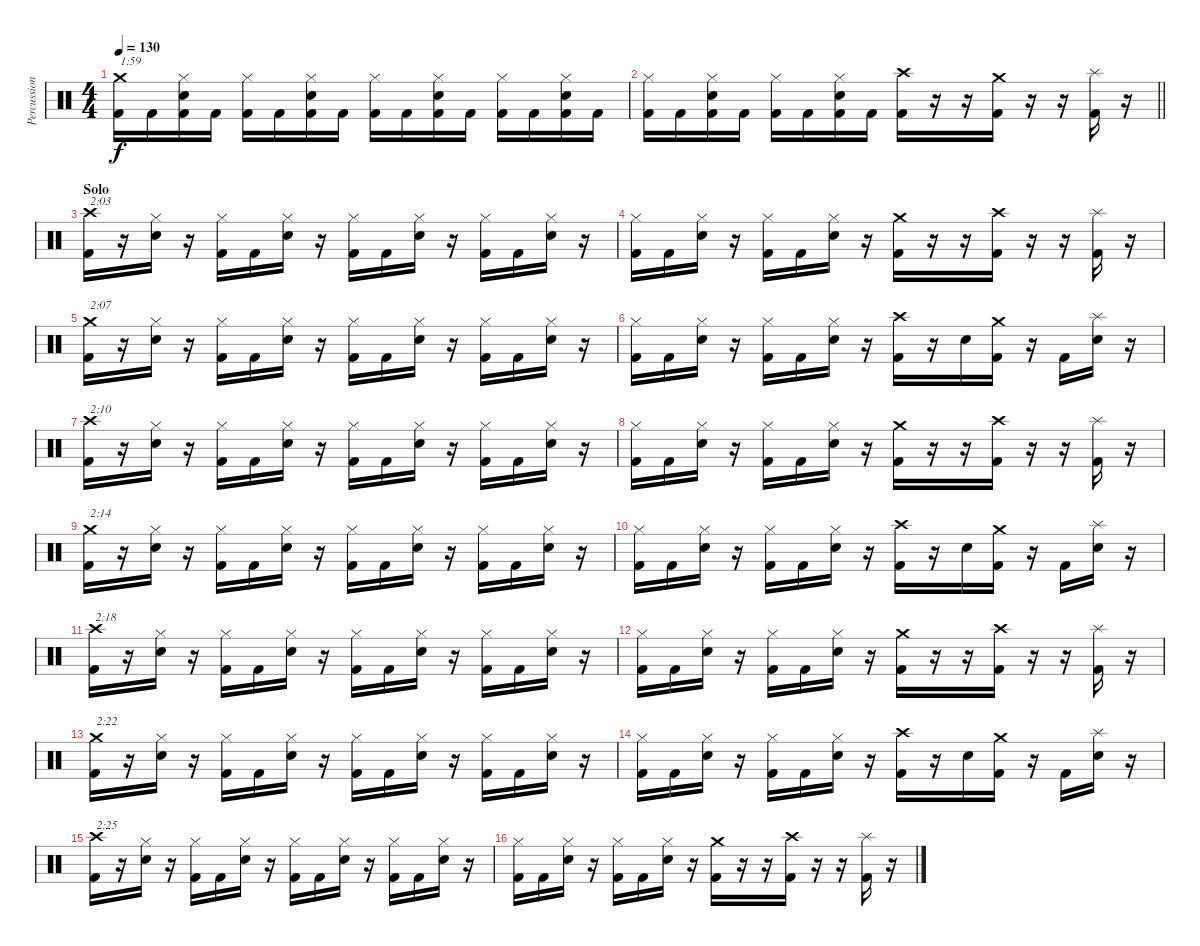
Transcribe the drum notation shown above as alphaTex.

\track ("Percussion" "Percussion") {instrument percussion}
\staff {score}
\articulation defaults
\ts (4 4)
\tempo 130
\clef neutral
\ks c
("Crash medium (hit)" "Kick (hit) 2").16{txt "1:59" dy f} "Kick (hit) 2".16 ("Hi-Hat (closed)" "Electric Snare (hit)" "Kick (hit) 2").16 "Kick (hit) 2".16 ("Hi-Hat (closed)" "Kick (hit) 2").16 "Kick (hit) 2".16 ("Hi-Hat (closed)" "Electric Snare (hit)" "Kick (hit) 2").16 "Kick (hit) 2".16 ("Hi-Hat (closed)" "Kick (hit) 2").16 "Kick (hit) 2".16 ("Hi-Hat (closed)" "Electric Snare (hit)" "Kick (hit) 2").16 "Kick (hit) 2".16 ("Hi-Hat (closed)" "Kick (hit) 2").16 "Kick (hit) 2".16 ("Hi-Hat (closed)" "Electric Snare (hit)" "Kick (hit) 2").16 "Kick (hit) 2".16 |
\barLineRight lightlight
("Hi-Hat (closed)" "Kick (hit) 2").16 "Kick (hit) 2".16 ("Hi-Hat (closed)" "Electric Snare (hit)" "Kick (hit) 2").16 "Kick (hit) 2".16 ("Hi-Hat (closed)" "Kick (hit) 2").16 "Kick (hit) 2".16 ("Hi-Hat (closed)" "Electric Snare (hit)" "Kick (hit) 2").16 "Kick (hit) 2".16 ("Crash high (hit)" "Kick (hit) 2").16 r.16 r.16 ("Crash medium (hit)" "Kick (hit) 2").16 r.16 r.16 ("Splash (hit)" "Kick (hit) 2").16 r.16 |
\section ("" "Solo")
("Crash high (hit)" "Kick (hit) 2").16{txt "2:03"} r.16 ("Hi-Hat (closed)" "Electric Snare (hit)").16 r.16 ("Hi-Hat (closed)" "Kick (hit) 2").16 "Kick (hit) 2".16 ("Hi-Hat (closed)" "Electric Snare (hit)").16 r.16 ("Hi-Hat (closed)" "Kick (hit) 2").16 "Kick (hit) 2".16 ("Hi-Hat (closed)" "Electric Snare (hit)").16 r.16 ("Hi-Hat (closed)" "Kick (hit) 2").16 "Kick (hit) 2".16 ("Hi-Hat (closed)" "Electric Snare (hit)").16 r.16 |
("Hi-Hat (closed)" "Kick (hit) 2").16 "Kick (hit) 2".16 ("Hi-Hat (closed)" "Electric Snare (hit)").16 r.16 ("Hi-Hat (closed)" "Kick (hit) 2").16 "Kick (hit) 2".16 ("Hi-Hat (closed)" "Electric Snare (hit)").16 r.16 ("Crash medium (hit)" "Kick (hit) 2").16 r.16 r.16 ("Crash high (hit)" "Kick (hit) 2").16 r.16 r.16 ("Splash (hit)" "Kick (hit) 2").16 r.16 |
("Crash medium (hit)" "Kick (hit) 2").16{txt "2:07"} r.16 ("Hi-Hat (closed)" "Electric Snare (hit)").16 r.16 ("Hi-Hat (closed)" "Kick (hit) 2").16 "Kick (hit) 2".16 ("Hi-Hat (closed)" "Electric Snare (hit)").16 r.16 ("Hi-Hat (closed)" "Kick (hit) 2").16 "Kick (hit) 2".16 ("Hi-Hat (closed)" "Electric Snare (hit)").16 r.16 ("Hi-Hat (closed)" "Kick (hit) 2").16 "Kick (hit) 2".16 ("Hi-Hat (closed)" "Electric Snare (hit)").16 r.16 |
("Hi-Hat (closed)" "Kick (hit) 2").16 "Kick (hit) 2".16 ("Hi-Hat (closed)" "Electric Snare (hit)").16 r.16 ("Hi-Hat (closed)" "Kick (hit) 2").16 "Kick (hit) 2".16 ("Hi-Hat (closed)" "Electric Snare (hit)").16 r.16 ("Crash high (hit)" "Kick (hit) 2").16 r.16 "Electric Snare (hit)".16 ("Crash medium (hit)" "Kick (hit) 2").16 r.16 "Kick (hit) 2".16 ("Splash (hit)" "Electric Snare (hit)").16 r.16 |
("Crash high (hit)" "Kick (hit) 2").16{txt "2:10"} r.16 ("Hi-Hat (closed)" "Electric Snare (hit)").16 r.16 ("Hi-Hat (closed)" "Kick (hit) 2").16 "Kick (hit) 2".16 ("Hi-Hat (closed)" "Electric Snare (hit)").16 r.16 ("Hi-Hat (closed)" "Kick (hit) 2").16 "Kick (hit) 2".16 ("Hi-Hat (closed)" "Electric Snare (hit)").16 r.16 ("Hi-Hat (closed)" "Kick (hit) 2").16 "Kick (hit) 2".16 ("Hi-Hat (closed)" "Electric Snare (hit)").16 r.16 |
("Hi-Hat (closed)" "Kick (hit) 2").16 "Kick (hit) 2".16 ("Hi-Hat (closed)" "Electric Snare (hit)").16 r.16 ("Hi-Hat (closed)" "Kick (hit) 2").16 "Kick (hit) 2".16 ("Hi-Hat (closed)" "Electric Snare (hit)").16 r.16 ("Crash medium (hit)" "Kick (hit) 2").16 r.16 r.16 ("Crash high (hit)" "Kick (hit) 2").16 r.16 r.16 ("Splash (hit)" "Kick (hit) 2").16 r.16 |
("Crash medium (hit)" "Kick (hit) 2").16{txt "2:14"} r.16 ("Hi-Hat (closed)" "Electric Snare (hit)").16 r.16 ("Hi-Hat (closed)" "Kick (hit) 2").16 "Kick (hit) 2".16 ("Hi-Hat (closed)" "Electric Snare (hit)").16 r.16 ("Hi-Hat (closed)" "Kick (hit) 2").16 "Kick (hit) 2".16 ("Hi-Hat (closed)" "Electric Snare (hit)").16 r.16 ("Hi-Hat (closed)" "Kick (hit) 2").16 "Kick (hit) 2".16 ("Hi-Hat (closed)" "Electric Snare (hit)").16 r.16 |
("Hi-Hat (closed)" "Kick (hit) 2").16 "Kick (hit) 2".16 ("Hi-Hat (closed)" "Electric Snare (hit)").16 r.16 ("Hi-Hat (closed)" "Kick (hit) 2").16 "Kick (hit) 2".16 ("Hi-Hat (closed)" "Electric Snare (hit)").16 r.16 ("Crash high (hit)" "Kick (hit) 2").16 r.16 "Electric Snare (hit)".16 ("Crash medium (hit)" "Kick (hit) 2").16 r.16 "Kick (hit) 2".16 ("Splash (hit)" "Electric Snare (hit)").16 r.16 |
("Crash high (hit)" "Kick (hit) 2").16{txt "2:18"} r.16 ("Hi-Hat (closed)" "Electric Snare (hit)").16 r.16 ("Hi-Hat (closed)" "Kick (hit) 2").16 "Kick (hit) 2".16 ("Hi-Hat (closed)" "Electric Snare (hit)").16 r.16 ("Hi-Hat (closed)" "Kick (hit) 2").16 "Kick (hit) 2".16 ("Hi-Hat (closed)" "Electric Snare (hit)").16 r.16 ("Hi-Hat (closed)" "Kick (hit) 2").16 "Kick (hit) 2".16 ("Hi-Hat (closed)" "Electric Snare (hit)").16 r.16 |
("Hi-Hat (closed)" "Kick (hit) 2").16 "Kick (hit) 2".16 ("Hi-Hat (closed)" "Electric Snare (hit)").16 r.16 ("Hi-Hat (closed)" "Kick (hit) 2").16 "Kick (hit) 2".16 ("Hi-Hat (closed)" "Electric Snare (hit)").16 r.16 ("Crash medium (hit)" "Kick (hit) 2").16 r.16 r.16 ("Crash high (hit)" "Kick (hit) 2").16 r.16 r.16 ("Splash (hit)" "Kick (hit) 2").16 r.16 |
("Crash medium (hit)" "Kick (hit) 2").16{txt "2:22"} r.16 ("Hi-Hat (closed)" "Electric Snare (hit)").16 r.16 ("Hi-Hat (closed)" "Kick (hit) 2").16 "Kick (hit) 2".16 ("Hi-Hat (closed)" "Electric Snare (hit)").16 r.16 ("Hi-Hat (closed)" "Kick (hit) 2").16 "Kick (hit) 2".16 ("Hi-Hat (closed)" "Electric Snare (hit)").16 r.16 ("Hi-Hat (closed)" "Kick (hit) 2").16 "Kick (hit) 2".16 ("Hi-Hat (closed)" "Electric Snare (hit)").16 r.16 |
("Hi-Hat (closed)" "Kick (hit) 2").16 "Kick (hit) 2".16 ("Hi-Hat (closed)" "Electric Snare (hit)").16 r.16 ("Hi-Hat (closed)" "Kick (hit) 2").16 "Kick (hit) 2".16 ("Hi-Hat (closed)" "Electric Snare (hit)").16 r.16 ("Crash high (hit)" "Kick (hit) 2").16 r.16 "Electric Snare (hit)".16 ("Crash medium (hit)" "Kick (hit) 2").16 r.16 "Kick (hit) 2".16 ("Splash (hit)" "Electric Snare (hit)").16 r.16 |
("Crash high (hit)" "Kick (hit) 2").16{txt "2:25"} r.16 ("Hi-Hat (closed)" "Electric Snare (hit)").16 r.16 ("Hi-Hat (closed)" "Kick (hit) 2").16 "Kick (hit) 2".16 ("Hi-Hat (closed)" "Electric Snare (hit)").16 r.16 ("Hi-Hat (closed)" "Kick (hit) 2").16 "Kick (hit) 2".16 ("Hi-Hat (closed)" "Electric Snare (hit)").16 r.16 ("Hi-Hat (closed)" "Kick (hit) 2").16 "Kick (hit) 2".16 ("Hi-Hat (closed)" "Electric Snare (hit)").16 r.16 |
("Hi-Hat (closed)" "Kick (hit) 2").16 "Kick (hit) 2".16 ("Hi-Hat (closed)" "Electric Snare (hit)").16 r.16 ("Hi-Hat (closed)" "Kick (hit) 2").16 "Kick (hit) 2".16 ("Hi-Hat (closed)" "Electric Snare (hit)").16 r.16 ("Crash medium (hit)" "Kick (hit) 2").16 r.16 r.16 ("Crash high (hit)" "Kick (hit) 2").16 r.16 r.16 ("Splash (hit)" "Kick (hit) 2").16 r.16
